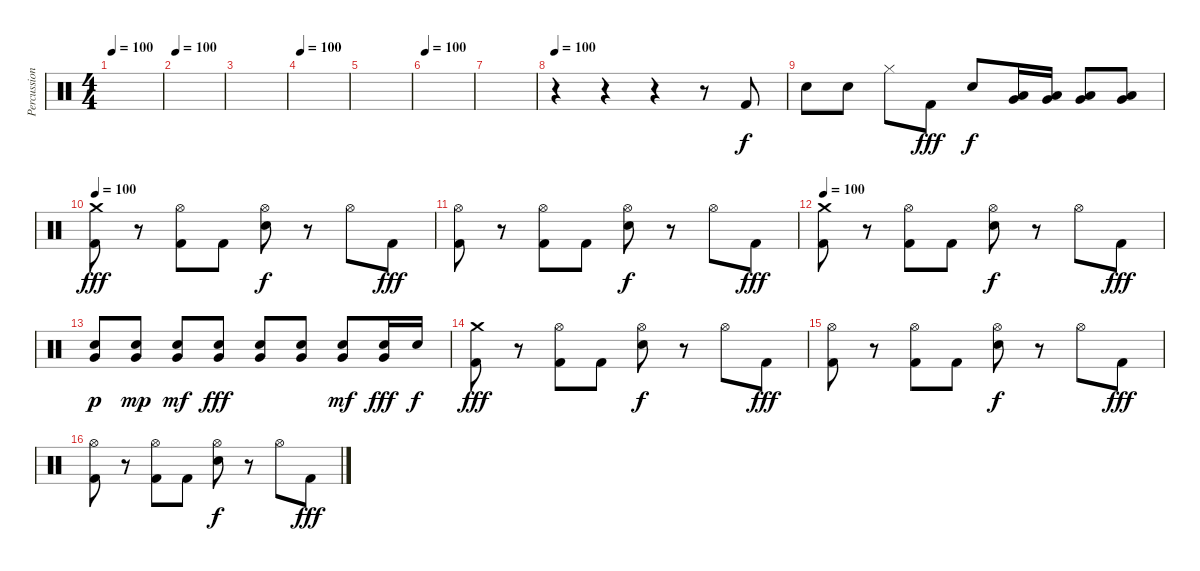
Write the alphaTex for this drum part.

\track ("Percussion" "Percussion") {instrument percussion}
\staff {score}
\articulation defaults
\ts (4 4)
\tempo 100
\tempo 85
\tempo 100
\clef neutral
\ks c
|
\tempo 100
|
|
\tempo 100
|
|
\tempo 100
|
|
\tempo 100
r.4 r.4 r.4 r.8 "Kick (hit) 2".8 |
"Snare (hit) 2".8{dy f} "Snare (hit) 2".8 "Hi-Hat (closed)".8 "Kick (hit) 2".8{dy fff} "Snare (hit) 2".8{dy f} ("Low Tom (hit)" "Very Low Tom (hit)").16 ("Low Tom (hit)" "Very Low Tom (hit)").16 ("Low Tom (hit)" "Very Low Tom (hit)").8 ("Low Floor Tom (hit)" "Very Low Tom (hit)").8 |
\tempo 100
("Crash medium (hit)" "Kick (hit) 2").8{dy fff} r.8 ("Hi-Hat (open)" "Kick (hit) 2").8 "Kick (hit) 2".8 ("Hi-Hat (open)" "Snare (hit) 2").8{dy f} r.8 "Hi-Hat (open)".8 "Kick (hit) 2".8{dy fff} |
("Hi-Hat (open)" "Kick (hit) 2").8 r.8 ("Hi-Hat (open)" "Kick (hit) 2").8 "Kick (hit) 2".8 ("Hi-Hat (open)" "Snare (hit) 2").8{dy f} r.8 "Hi-Hat (open)".8 "Kick (hit) 2".8{dy fff} |
\tempo 100
("Crash medium (hit)" "Kick (hit) 2").8 r.8 ("Hi-Hat (open)" "Kick (hit) 2").8 "Kick (hit) 2".8 ("Hi-Hat (open)" "Snare (hit) 2").8{dy f} r.8 "Hi-Hat (open)".8 "Kick (hit) 2".8{dy fff} |
("Very Low Tom (hit)" "Snare (hit) 2").8{dy p} ("Very Low Tom (hit)" "Snare (hit) 2").8{dy mp} ("Very Low Tom (hit)" "Snare (hit) 2").8{dy mf} ("Very Low Tom (hit)" "Snare (hit) 2").8{dy fff} ("Very Low Tom (hit)" "Snare (hit) 2").8 ("Very Low Tom (hit)" "Snare (hit) 2").8 ("Very Low Tom (hit)" "Snare (hit) 2").8{dy mf} ("Very Low Tom (hit)" "Snare (hit) 2").16{dy fff} "Snare (hit) 2".16{dy f} |
("Crash medium (hit)" "Kick (hit) 2").8{dy fff} r.8 ("Hi-Hat (open)" "Kick (hit) 2").8 "Kick (hit) 2".8 ("Hi-Hat (open)" "Snare (hit) 2").8{dy f} r.8 "Hi-Hat (open)".8 "Kick (hit) 2".8{dy fff} |
("Hi-Hat (open)" "Kick (hit) 2").8 r.8 ("Hi-Hat (open)" "Kick (hit) 2").8 "Kick (hit) 2".8 ("Hi-Hat (open)" "Snare (hit) 2").8{dy f} r.8 "Hi-Hat (open)".8 "Kick (hit) 2".8{dy fff} |
("Hi-Hat (open)" "Kick (hit) 2").8 r.8 ("Hi-Hat (open)" "Kick (hit) 2").8 "Kick (hit) 2".8 ("Hi-Hat (open)" "Snare (hit) 2").8{dy f} r.8 "Hi-Hat (open)".8 "Kick (hit) 2".8{dy fff}
